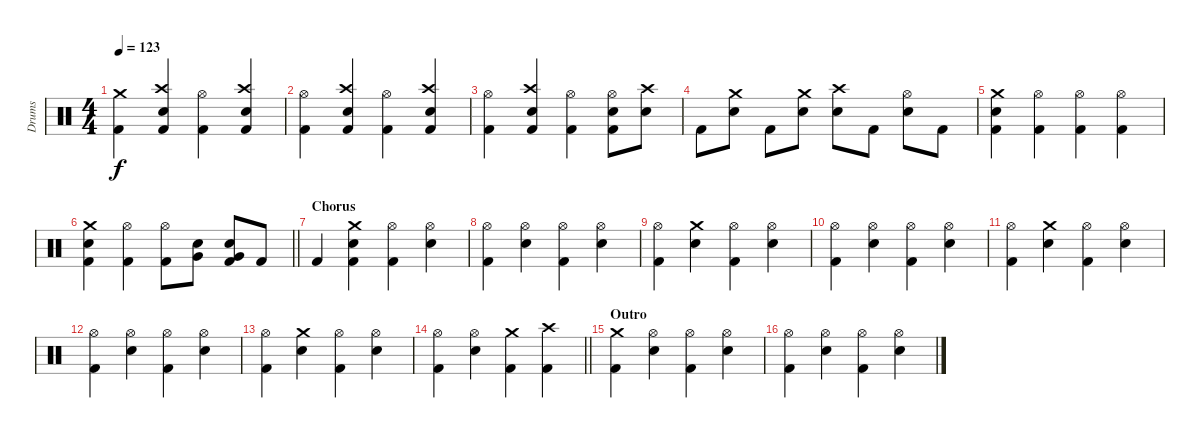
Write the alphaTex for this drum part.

\track ("Drums" "Drums") {instrument percussion}
\staff {score}
\articulation defaults
\ts (4 4)
\tempo 123
\clef neutral
\ks c
("Crash medium (hit)" "Kick (hit) 2").4{dy f} ("Crash high (hit)" "Electric Snare (hit)" "Kick (hit) 2").4 ("Hi-Hat (open)" "Kick (hit) 2").4 ("Crash high (hit)" "Electric Snare (hit)" "Kick (hit) 2").4 |
("Hi-Hat (open)" "Kick (hit) 2").4 ("Crash high (hit)" "Electric Snare (hit)" "Kick (hit) 2").4 ("Hi-Hat (open)" "Kick (hit) 2").4 ("Crash high (hit)" "Electric Snare (hit)" "Kick (hit) 2").4 |
("Hi-Hat (open)" "Kick (hit) 2").4 ("Crash high (hit)" "Electric Snare (hit)" "Kick (hit) 2").4 ("Hi-Hat (open)" "Kick (hit) 2").4 ("Hi-Hat (open)" "Electric Snare (hit)" "Kick (hit) 2").8 ("Crash high (hit)" "Electric Snare (hit)").8 |
"Kick (hit) 2".8 ("Crash medium (hit)" "Electric Snare (hit)").8 "Kick (hit) 2".8 ("Crash medium (hit)" "Electric Snare (hit)").8 ("Crash high (hit)" "Electric Snare (hit)").8 "Kick (hit) 2".8 ("Hi-Hat (open)" "Electric Snare (hit)").8 "Kick (hit) 2".8 |
("Crash medium (hit)" "Electric Snare (hit)" "Kick (hit) 2").4 ("Hi-Hat (open)" "Kick (hit) 2").4 ("Hi-Hat (open)" "Kick (hit) 2").4 ("Hi-Hat (open)" "Kick (hit) 2").4 |
\barLineRight lightlight
("Crash medium (hit)" "Electric Snare (hit)" "Kick (hit) 2").4 ("Hi-Hat (open)" "Kick (hit) 2").4 ("Hi-Hat (open)" "Kick (hit) 2").8 ("Electric Snare (hit)" "Very Low Tom (hit)").8 ("Electric Snare (hit)" "Very Low Tom (hit)" "Kick (hit) 2").8 "Kick (hit) 2".8 |
\section ("" "Chorus")
"Kick (hit) 2".4 ("Crash medium (hit)" "Electric Snare (hit)" "Kick (hit) 2").4 ("Hi-Hat (open)" "Kick (hit) 2").4 ("Hi-Hat (open)" "Electric Snare (hit)").4 |
("Hi-Hat (open)" "Kick (hit) 2").4 ("Hi-Hat (open)" "Electric Snare (hit)").4 ("Hi-Hat (open)" "Kick (hit) 2").4 ("Hi-Hat (open)" "Electric Snare (hit)").4 |
("Hi-Hat (open)" "Kick (hit) 2").4 ("Crash medium (hit)" "Electric Snare (hit)").4 ("Hi-Hat (open)" "Kick (hit) 2").4 ("Hi-Hat (open)" "Electric Snare (hit)").4 |
("Hi-Hat (open)" "Kick (hit) 2").4 ("Hi-Hat (open)" "Electric Snare (hit)").4 ("Hi-Hat (open)" "Kick (hit) 2").4 ("Hi-Hat (open)" "Electric Snare (hit)").4 |
("Hi-Hat (open)" "Kick (hit) 2").4 ("Crash medium (hit)" "Electric Snare (hit)").4 ("Hi-Hat (open)" "Kick (hit) 2").4 ("Hi-Hat (open)" "Electric Snare (hit)").4 |
("Hi-Hat (open)" "Kick (hit) 2").4 ("Hi-Hat (open)" "Electric Snare (hit)").4 ("Hi-Hat (open)" "Kick (hit) 2").4 ("Hi-Hat (open)" "Electric Snare (hit)").4 |
("Hi-Hat (open)" "Kick (hit) 2").4 ("Crash medium (hit)" "Electric Snare (hit)").4 ("Hi-Hat (open)" "Kick (hit) 2").4 ("Hi-Hat (open)" "Electric Snare (hit)").4 |
\barLineRight lightlight
("Hi-Hat (open)" "Kick (hit) 2").4 ("Hi-Hat (open)" "Electric Snare (hit)").4 ("Crash medium (hit)" "Kick (hit) 2").4 ("Crash high (hit)" "Kick (hit) 2").4 |
\section ("" "Outro")
("Crash medium (hit)" "Kick (hit) 2").4 ("Hi-Hat (open)" "Electric Snare (hit)").4 ("Hi-Hat (open)" "Kick (hit) 2").4 ("Hi-Hat (open)" "Electric Snare (hit)").4 |
("Hi-Hat (open)" "Kick (hit) 2").4 ("Hi-Hat (open)" "Electric Snare (hit)").4 ("Hi-Hat (open)" "Kick (hit) 2").4 ("Hi-Hat (open)" "Electric Snare (hit)").4
